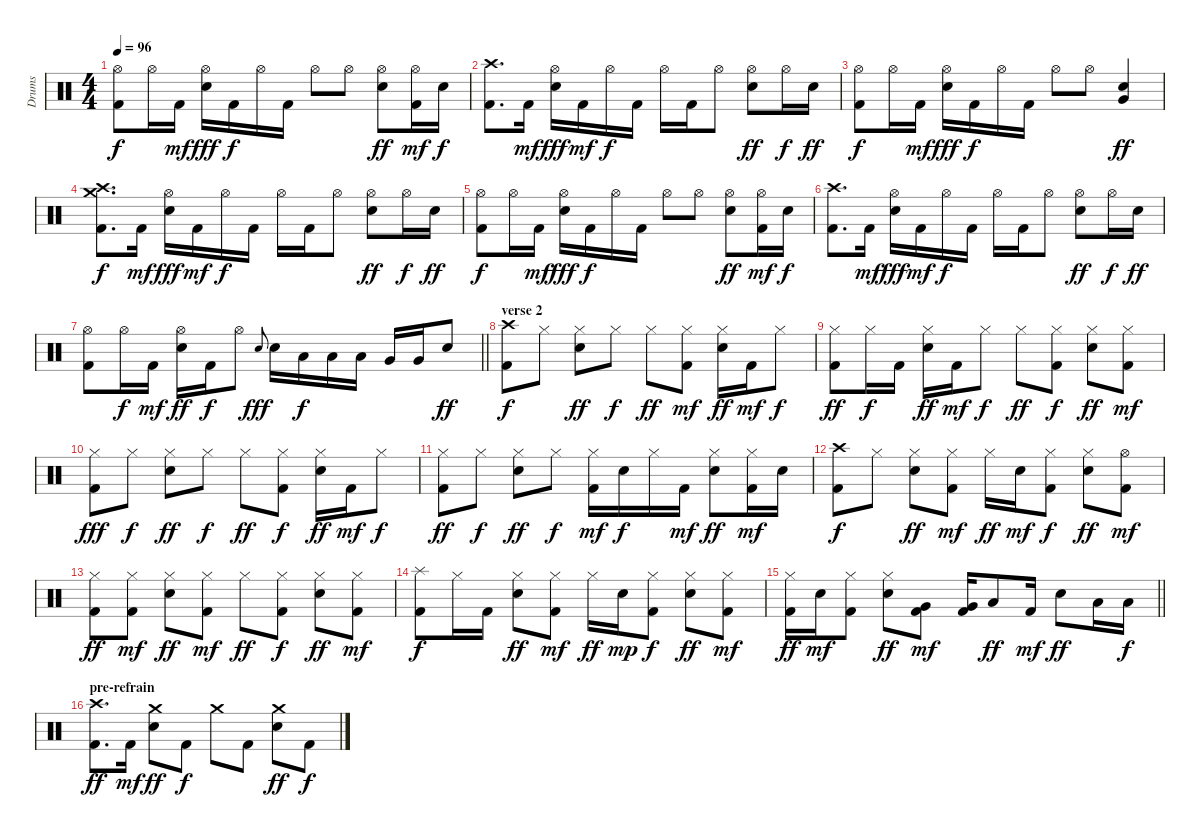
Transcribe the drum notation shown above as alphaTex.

\track ("Drums" "Drums") {instrument percussion}
\staff {score}
\articulation defaults
\ts (4 4)
\tempo 96
\clef neutral
\ks c
("Hi-Hat (open)" "Kick (hit) 2").8{dy f} "Hi-Hat (open)".16 "Kick (hit) 2".16{dy mf} ("Hi-Hat (open)" "Electric Snare (hit)").16{dy fff} "Kick (hit) 2".16{dy f} "Hi-Hat (open)".16 "Kick (hit) 2".16 "Hi-Hat (open)".8 "Hi-Hat (open)".8 ("Hi-Hat (open)" "Electric Snare (hit)").8{dy ff} ("Hi-Hat (open)" "Kick (hit) 2").16{dy mf} "Electric Snare (hit)".16{dy f} |
("Crash high (hit)" "Kick (hit) 2").8{d} "Kick (hit) 2".16{dy mf} ("Hi-Hat (open)" "Electric Snare (hit)").16{dy fff} "Kick (hit) 2".16{dy mf} "Hi-Hat (open)".16{dy f} "Kick (hit) 2".16 "Hi-Hat (open)".16 "Kick (hit) 2".16 "Hi-Hat (open)".8 ("Hi-Hat (open)" "Electric Snare (hit)").8{dy ff} "Hi-Hat (open)".16{dy f} "Electric Snare (hit)".16{dy ff} |
("Hi-Hat (open)" "Kick (hit) 2").8{dy f} "Hi-Hat (open)".16 "Kick (hit) 2".16{dy mf} ("Hi-Hat (open)" "Electric Snare (hit)").16{dy fff} "Kick (hit) 2".16{dy f} "Hi-Hat (open)".16 "Kick (hit) 2".16 "Hi-Hat (open)".8 "Hi-Hat (open)".8 ("Very Low Tom (hit)" "Electric Snare (hit)").4{dy ff} |
("Crash medium (hit)" "Crash high (hit)" "Kick (hit) 2").8{d dy f} "Kick (hit) 2".16{dy mf} ("Hi-Hat (open)" "Electric Snare (hit)").16{dy fff} "Kick (hit) 2".16{dy mf} "Hi-Hat (open)".16{dy f} "Kick (hit) 2".16 "Hi-Hat (open)".16 "Kick (hit) 2".16 "Hi-Hat (open)".8 ("Hi-Hat (open)" "Electric Snare (hit)").8{dy ff} "Hi-Hat (open)".16{dy f} "Electric Snare (hit)".16{dy ff} |
("Hi-Hat (open)" "Kick (hit) 2").8{dy f} "Hi-Hat (open)".16 "Kick (hit) 2".16{dy mf} ("Hi-Hat (open)" "Electric Snare (hit)").16{dy fff} "Kick (hit) 2".16{dy f} "Hi-Hat (open)".16 "Kick (hit) 2".16 "Hi-Hat (open)".8 "Hi-Hat (open)".8 ("Hi-Hat (open)" "Electric Snare (hit)").8{dy ff} ("Hi-Hat (open)" "Kick (hit) 2").16{dy mf} "Electric Snare (hit)".16{dy f} |
("Crash high (hit)" "Kick (hit) 2").8{d} "Kick (hit) 2".16{dy mf} ("Hi-Hat (open)" "Electric Snare (hit)").16{dy fff} "Kick (hit) 2".16{dy mf} "Hi-Hat (open)".16{dy f} "Kick (hit) 2".16 "Hi-Hat (open)".16 "Kick (hit) 2".16 "Hi-Hat (open)".8 ("Hi-Hat (open)" "Electric Snare (hit)").8{dy ff} "Hi-Hat (open)".16{dy f} "Electric Snare (hit)".16{dy ff} |
\barLineRight lightlight
("Hi-Hat (open)" "Kick (hit) 2").8 "Hi-Hat (open)".16{dy f} "Kick (hit) 2".16{dy mf} ("Hi-Hat (open)" "Electric Snare (hit)").16{dy ff} "Kick (hit) 2".16{dy f} "Hi-Hat (open)".8 "Electric Snare (hit)".8{gr onbeat dy fff} "Electric Snare (hit)".16 "Low Tom (hit)".16{dy f} "Low Tom (hit)".16 "Low Tom (hit)".16 "Very Low Tom (hit)".16 "Very Low Tom (hit)".16 "Electric Snare (hit)".8{dy ff} |
\section ("" "verse 2")
("Crash high (hit)" "Kick (hit) 2").8{dy f} "Hi-Hat (closed)".8 ("Hi-Hat (closed)" "Electric Snare (hit)").8{dy ff} "Hi-Hat (closed)".8{dy f} "Hi-Hat (closed)".8{dy ff} ("Hi-Hat (closed)" "Kick (hit) 2").8{dy mf} ("Hi-Hat (closed)" "Electric Snare (hit)").16{dy ff} "Kick (hit) 2".16{dy mf} "Hi-Hat (closed)".8{dy f} |
("Hi-Hat (closed)" "Kick (hit) 2").8{dy ff} "Hi-Hat (closed)".16{dy f} "Kick (hit) 2".16 ("Hi-Hat (closed)" "Electric Snare (hit)").16{dy ff} "Kick (hit) 2".16{dy mf} "Hi-Hat (closed)".8{dy f} "Hi-Hat (closed)".8{dy ff} ("Hi-Hat (closed)" "Kick (hit) 2").8{dy f} ("Hi-Hat (closed)" "Electric Snare (hit)").8{dy ff} ("Hi-Hat (closed)" "Kick (hit) 2").8{dy mf} |
("Hi-Hat (closed)" "Kick (hit) 2").8{dy fff} "Hi-Hat (closed)".8{dy f} ("Hi-Hat (closed)" "Electric Snare (hit)").8{dy ff} "Hi-Hat (closed)".8{dy f} "Hi-Hat (closed)".8{dy ff} ("Hi-Hat (closed)" "Kick (hit) 2").8{dy f} ("Hi-Hat (closed)" "Electric Snare (hit)").16{dy ff} "Kick (hit) 2".16{dy mf} "Hi-Hat (closed)".8{dy f} |
("Hi-Hat (closed)" "Kick (hit) 2").8{dy ff} "Hi-Hat (closed)".8{dy f} ("Hi-Hat (closed)" "Electric Snare (hit)").8{dy ff} "Hi-Hat (closed)".8{dy f} ("Hi-Hat (closed)" "Kick (hit) 2").16{dy mf} "Electric Snare (hit)".16{dy f} "Hi-Hat (closed)".16 "Kick (hit) 2".16{dy mf} ("Hi-Hat (closed)" "Electric Snare (hit)").8{dy ff} ("Hi-Hat (closed)" "Kick (hit) 2").16{dy mf} "Electric Snare (hit)".16 |
("Crash high (hit)" "Kick (hit) 2").8{dy f} "Hi-Hat (closed)".8 ("Hi-Hat (closed)" "Electric Snare (hit)").8{dy ff} ("Hi-Hat (closed)" "Kick (hit) 2").8{dy mf} "Hi-Hat (closed)".16{dy ff} "Electric Snare (hit)".16{dy mf} ("Hi-Hat (closed)" "Kick (hit) 2").8{dy f} ("Hi-Hat (closed)" "Electric Snare (hit)").8{dy ff} ("Hi-Hat (open)" "Kick (hit) 2").8{dy mf} |
("Hi-Hat (closed)" "Kick (hit) 2").8{dy ff} ("Hi-Hat (closed)" "Kick (hit) 2").8{dy mf} ("Hi-Hat (closed)" "Electric Snare (hit)").8{dy ff} ("Hi-Hat (closed)" "Kick (hit) 2").8{dy mf} "Hi-Hat (closed)".8{dy ff} ("Hi-Hat (closed)" "Kick (hit) 2").8{dy f} ("Hi-Hat (closed)" "Electric Snare (hit)").8{dy ff} ("Hi-Hat (closed)" "Kick (hit) 2").8{dy mf} |
("Splash (hit)" "Kick (hit) 2").8{dy f} "Hi-Hat (closed)".16 "Kick (hit) 2".16 ("Hi-Hat (closed)" "Electric Snare (hit)").8{dy ff} ("Hi-Hat (closed)" "Kick (hit) 2").8{dy mf} "Hi-Hat (closed)".16{dy ff} "Electric Snare (hit)".16{dy mp} ("Hi-Hat (closed)" "Kick (hit) 2").8{dy f} ("Hi-Hat (closed)" "Electric Snare (hit)").8{dy ff} ("Hi-Hat (closed)" "Kick (hit) 2").8{dy mf} |
\barLineRight lightlight
("Hi-Hat (closed)" "Kick (hit) 2").16{dy ff} "Electric Snare (hit)".16{dy mf} ("Hi-Hat (closed)" "Kick (hit) 2").8 ("Hi-Hat (closed)" "Electric Snare (hit)").8{dy ff} ("Very Low Tom (hit)" "Kick (hit) 2").8{dy mf} ("Very Low Tom (hit)" "Kick (hit) 2").16 "Low Tom (hit)".8{dy ff} "Kick (hit) 2".16{dy mf} "Electric Snare (hit)".8{dy ff} "Low Tom (hit)".16 "Low Tom (hit)".16{dy f} |
\section ("" "pre-refrain")
("Crash high (hit)" "Kick (hit) 2").8{d dy ff} "Kick (hit) 2".16{dy mf} ("Crash medium (hit)" "Electric Snare (hit)").8{dy ff} "Kick (hit) 2".8{dy f} "Crash medium (hit)".8 "Kick (hit) 2".8 ("Crash medium (hit)" "Electric Snare (hit)").8{dy ff} "Kick (hit) 2".8{dy f}
